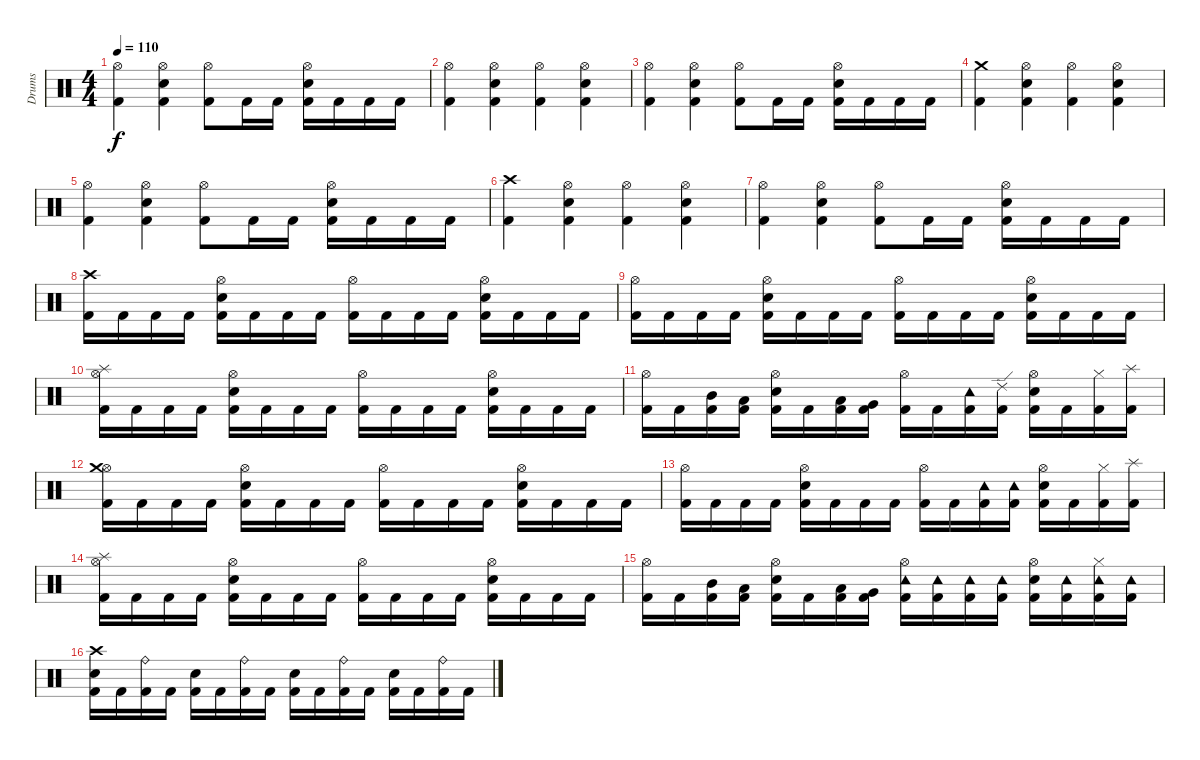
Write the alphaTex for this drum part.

\track ("Drums" "Drums") {instrument percussion}
\staff {score}
\articulation defaults
\ts (4 4)
\tempo 110
\clef neutral
\ks c
("Hi-Hat (open)" "Kick (hit) 2").4{dy f} ("Hi-Hat (open)" "Electric Snare (hit)" "Kick (hit) 2").4 ("Hi-Hat (open)" "Kick (hit) 2").8 "Kick (hit) 2".16 "Kick (hit) 2".16 ("Hi-Hat (open)" "Kick (hit) 2" "Electric Snare (hit)").16 "Kick (hit) 2".16 "Kick (hit) 2".16 "Kick (hit) 2".16 |
("Kick (hit) 2" "Hi-Hat (open)").4 ("Hi-Hat (open)" "Electric Snare (hit)" "Kick (hit) 2").4 ("Hi-Hat (open)" "Kick (hit) 2").4 ("Hi-Hat (open)" "Electric Snare (hit)" "Kick (hit) 2").4 |
("Hi-Hat (open)" "Kick (hit) 2").4 ("Hi-Hat (open)" "Electric Snare (hit)" "Kick (hit) 2").4 ("Hi-Hat (open)" "Kick (hit) 2").8 "Kick (hit) 2".16 "Kick (hit) 2".16 ("Hi-Hat (open)" "Kick (hit) 2" "Electric Snare (hit)").16 "Kick (hit) 2".16 "Kick (hit) 2".16 "Kick (hit) 2".16 |
("Kick (hit) 2" "Crash medium (hit)").4 ("Hi-Hat (open)" "Electric Snare (hit)" "Kick (hit) 2").4 ("Hi-Hat (open)" "Kick (hit) 2").4 ("Hi-Hat (open)" "Electric Snare (hit)" "Kick (hit) 2").4 |
("Hi-Hat (open)" "Kick (hit) 2").4 ("Hi-Hat (open)" "Electric Snare (hit)" "Kick (hit) 2").4 ("Hi-Hat (open)" "Kick (hit) 2").8 "Kick (hit) 2".16 "Kick (hit) 2".16 ("Hi-Hat (open)" "Kick (hit) 2" "Electric Snare (hit)").16 "Kick (hit) 2".16 "Kick (hit) 2".16 "Kick (hit) 2".16 |
("Kick (hit) 2" "Crash high (hit)").4 ("Hi-Hat (open)" "Electric Snare (hit)" "Kick (hit) 2").4 ("Hi-Hat (open)" "Kick (hit) 2").4 ("Hi-Hat (open)" "Electric Snare (hit)" "Kick (hit) 2").4 |
("Hi-Hat (open)" "Kick (hit) 2").4 ("Hi-Hat (open)" "Electric Snare (hit)" "Kick (hit) 2").4 ("Hi-Hat (open)" "Kick (hit) 2").8 "Kick (hit) 2".16 "Kick (hit) 2".16 ("Hi-Hat (open)" "Kick (hit) 2" "Electric Snare (hit)").16 "Kick (hit) 2".16 "Kick (hit) 2".16 "Kick (hit) 2".16 |
("Kick (hit) 2" "Crash high (hit)").16 "Kick (hit) 2".16 "Kick (hit) 2".16 "Kick (hit) 2".16 ("Kick (hit) 2" "Electric Snare (hit)" "Hi-Hat (open)").16 "Kick (hit) 2".16 "Kick (hit) 2".16 "Kick (hit) 2".16 ("Kick (hit) 2" "Hi-Hat (open)").16 "Kick (hit) 2".16 "Kick (hit) 2".16 "Kick (hit) 2".16 ("Kick (hit) 2" "Electric Snare (hit)" "Hi-Hat (open)").16 "Kick (hit) 2".16 "Kick (hit) 2".16 "Kick (hit) 2".16 |
("Kick (hit) 2" "Hi-Hat (open)").16 "Kick (hit) 2".16 "Kick (hit) 2".16 "Kick (hit) 2".16 ("Kick (hit) 2" "Electric Snare (hit)" "Hi-Hat (open)").16 "Kick (hit) 2".16 "Kick (hit) 2".16 "Kick (hit) 2".16 ("Kick (hit) 2" "Hi-Hat (open)").16 "Kick (hit) 2".16 "Kick (hit) 2".16 "Kick (hit) 2".16 ("Kick (hit) 2" "Electric Snare (hit)" "Hi-Hat (open)").16 "Kick (hit) 2".16 "Kick (hit) 2".16 "Kick (hit) 2".16 |
("Kick (hit) 2" "Splash (hit)" "Hi-Hat (open)").16 "Kick (hit) 2".16 "Kick (hit) 2".16 "Kick (hit) 2".16 ("Kick (hit) 2" "Electric Snare (hit)" "Hi-Hat (open)").16 "Kick (hit) 2".16 "Kick (hit) 2".16 "Kick (hit) 2".16 ("Kick (hit) 2" "Hi-Hat (open)").16 "Kick (hit) 2".16 "Kick (hit) 2".16 "Kick (hit) 2".16 ("Kick (hit) 2" "Electric Snare (hit)" "Hi-Hat (open)").16 "Kick (hit) 2".16 "Kick (hit) 2".16 "Kick (hit) 2".16 |
("Kick (hit) 2" "Hi-Hat (open)").16 "Kick (hit) 2".16 ("Kick (hit) 2" "Mid Tom (hit)").16 ("Kick (hit) 2" "Low Tom (hit)").16 ("Kick (hit) 2" "Electric Snare (hit)" "Hi-Hat (open)").16 "Kick (hit) 2".16 ("Kick (hit) 2" "Low Tom (hit)").16 ("Kick (hit) 2" "Very Low Tom (hit)").16 ("Kick (hit) 2" "Hi-Hat (open)").16 "Kick (hit) 2".16 ("Kick (hit) 2" "Tambourine (hit)").16 ("Kick (hit) 2" "Ride (edge) 2").16 ("Kick (hit) 2" "Hi-Hat (open)" "Electric Snare (hit)").16 "Kick (hit) 2".16 ("Kick (hit) 2" "Hi-Hat (closed)").16 ("Kick (hit) 2" "Splash (hit)").16 |
("Kick (hit) 2" "Hi-Hat (open)" "Crash medium (hit)").16 "Kick (hit) 2".16 "Kick (hit) 2".16 "Kick (hit) 2".16 ("Kick (hit) 2" "Electric Snare (hit)" "Hi-Hat (open)").16 "Kick (hit) 2".16 "Kick (hit) 2".16 "Kick (hit) 2".16 ("Kick (hit) 2" "Hi-Hat (open)").16 "Kick (hit) 2".16 "Kick (hit) 2".16 "Kick (hit) 2".16 ("Kick (hit) 2" "Electric Snare (hit)" "Hi-Hat (open)").16 "Kick (hit) 2".16 "Kick (hit) 2".16 "Kick (hit) 2".16 |
("Kick (hit) 2" "Hi-Hat (open)").16 "Kick (hit) 2".16 "Kick (hit) 2".16 "Kick (hit) 2".16 ("Kick (hit) 2" "Electric Snare (hit)" "Hi-Hat (open)").16 "Kick (hit) 2".16 "Kick (hit) 2".16 "Kick (hit) 2".16 ("Hi-Hat (open)" "Kick (hit) 2").16 "Kick (hit) 2".16 ("Tambourine (hit)" "Kick (hit) 2").16 ("Kick (hit) 2" "Tambourine (hit)").16 ("Hi-Hat (open)" "Electric Snare (hit)" "Kick (hit) 2").16 "Kick (hit) 2".16 ("Hi-Hat (closed)" "Kick (hit) 2").16 ("Splash (hit)" "Kick (hit) 2").16 |
("Hi-Hat (open)" "Splash (hit)" "Kick (hit) 2").16 "Kick (hit) 2".16 "Kick (hit) 2".16 "Kick (hit) 2".16 ("Kick (hit) 2" "Electric Snare (hit)" "Hi-Hat (open)").16 "Kick (hit) 2".16 "Kick (hit) 2".16 "Kick (hit) 2".16 ("Kick (hit) 2" "Hi-Hat (open)").16 "Kick (hit) 2".16 "Kick (hit) 2".16 "Kick (hit) 2".16 ("Kick (hit) 2" "Electric Snare (hit)" "Hi-Hat (open)").16 "Kick (hit) 2".16 "Kick (hit) 2".16 "Kick (hit) 2".16 |
("Kick (hit) 2" "Hi-Hat (open)").16 "Kick (hit) 2".16 ("Kick (hit) 2" "Mid Tom (hit)").16 ("Kick (hit) 2" "Low Tom (hit)").16 ("Kick (hit) 2" "Electric Snare (hit)" "Hi-Hat (open)").16 "Kick (hit) 2".16 ("Kick (hit) 2" "Low Tom (hit)").16 ("Kick (hit) 2" "Very Low Tom (hit)").16 ("Kick (hit) 2" "Hi-Hat (open)" "Tambourine (hit)").16 ("Kick (hit) 2" "Tambourine (hit)").16 ("Kick (hit) 2" "Tambourine (hit)").16 ("Kick (hit) 2" "Tambourine (hit)").16 ("Kick (hit) 2" "Hi-Hat (open)" "Electric Snare (hit)").16 ("Kick (hit) 2" "Tambourine (hit)").16 ("Kick (hit) 2" "Hi-Hat (closed)" "Tambourine (hit)").16 ("Kick (hit) 2" "Tambourine (hit)").16 |
("Kick (hit) 2" "Electric Snare (hit)" "Crash high (hit)").16 "Kick (hit) 2".16 ("Kick (hit) 2" "Ride (bell)").16 "Kick (hit) 2".16 ("Kick (hit) 2" "Electric Snare (hit)").16 "Kick (hit) 2".16 ("Kick (hit) 2" "Ride (bell)").16 "Kick (hit) 2".16 ("Kick (hit) 2" "Electric Snare (hit)").16 "Kick (hit) 2".16 ("Kick (hit) 2" "Ride (bell)").16 "Kick (hit) 2".16 ("Kick (hit) 2" "Electric Snare (hit)").16 "Kick (hit) 2".16 ("Kick (hit) 2" "Ride (bell)").16 "Kick (hit) 2".16
